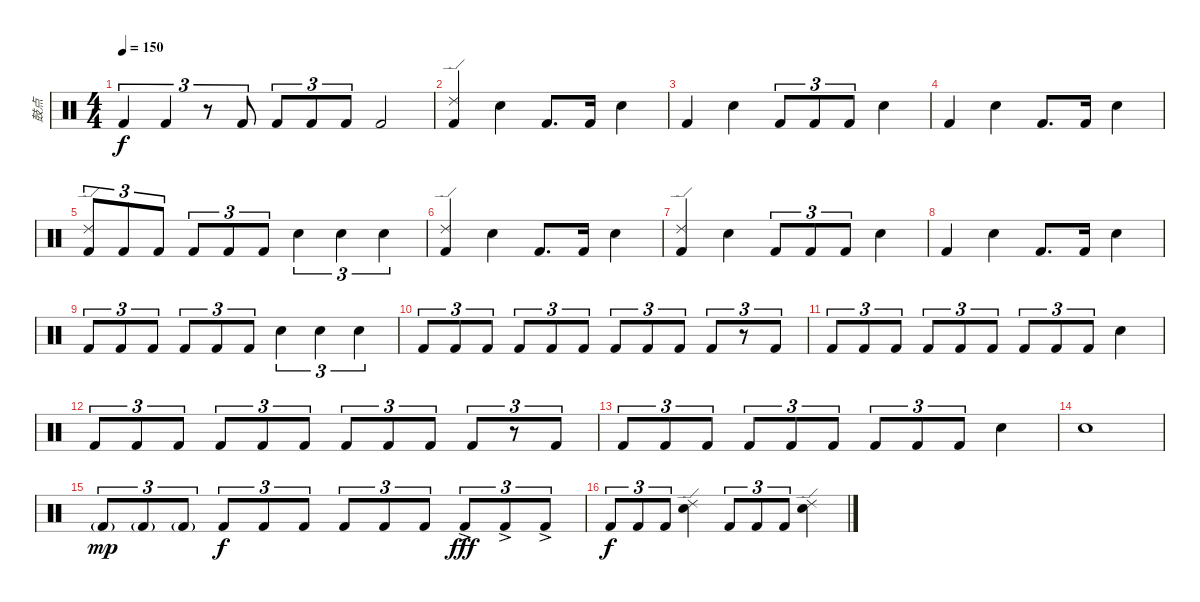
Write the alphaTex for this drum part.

\track ("鼓点" "鼓点") {instrument percussion}
\staff {score}
\articulation defaults
\ts (4 4)
\tempo 150
\clef neutral
\ks c "Kick (hit) 2".4{tu (3 2) dy f} "Kick (hit) 2".4{tu (3 2)}
r.8{tu (3 2)} "Kick (hit) 2".8{tu (3 2)} "Kick (hit) 2".8{tu (3 2)} "Kick (hit) 2".8{tu (3 2)} "Kick (hit) 2".8{tu (3 2)} "Kick (hit) 2".2 |
("Kick (hit) 2" "Ride (edge) 2").4 "Snare (hit) 2".4 "Kick (hit) 2".8{d} "Kick (hit) 2".16 "Snare (hit) 2".4 |
"Kick (hit) 2".4 "Snare (hit) 2".4 "Kick (hit) 2".8{tu (3 2)} "Kick (hit) 2".8{tu (3 2)} "Kick (hit) 2".8{tu (3 2)} "Snare (hit) 2".4 |
"Kick (hit) 2".4 "Snare (hit) 2".4 "Kick (hit) 2".8{d} "Kick (hit) 2".16 "Snare (hit) 2".4 |
("Kick (hit) 2" "Ride (edge) 2").8{tu (3 2)} "Kick (hit) 2".8{tu (3 2)} "Kick (hit) 2".8{tu (3 2)} "Kick (hit) 2".8{tu (3 2)} "Kick (hit) 2".8{tu (3 2)} "Kick (hit) 2".8{tu (3 2)} "Snare (hit) 2".4{tu (3 2)} "Snare (hit) 2".4{tu (3 2)} "Snare (hit) 2".4{tu (3 2)} |
("Kick (hit) 2" "Ride (edge) 2").4 "Snare (hit) 2".4 "Kick (hit) 2".8{d} "Kick (hit) 2".16 "Snare (hit) 2".4 |
("Kick (hit) 2" "Ride (edge) 2").4 "Snare (hit) 2".4 "Kick (hit) 2".8{tu (3 2)} "Kick (hit) 2".8{tu (3 2)} "Kick (hit) 2".8{tu (3 2)} "Snare (hit) 2".4 |
"Kick (hit) 2".4 "Snare (hit) 2".4 "Kick (hit) 2".8{d} "Kick (hit) 2".16 "Snare (hit) 2".4 |
"Kick (hit) 2".8{tu (3 2)} "Kick (hit) 2".8{tu (3 2)} "Kick (hit) 2".8{tu (3 2)} "Kick (hit) 2".8{tu (3 2)} "Kick (hit) 2".8{tu (3 2)} "Kick (hit) 2".8{tu (3 2)} "Snare (hit) 2".4{tu (3 2)} "Snare (hit) 2".4{tu (3 2)} "Snare (hit) 2".4{tu (3 2)} |
"Kick (hit) 2".8{tu (3 2)} "Kick (hit) 2".8{tu (3 2)} "Kick (hit) 2".8{tu (3 2)} "Kick (hit) 2".8{tu (3 2)} "Kick (hit) 2".8{tu (3 2)} "Kick (hit) 2".8{tu (3 2)} "Kick (hit) 2".8{tu (3 2)} "Kick (hit) 2".8{tu (3 2)} "Kick (hit) 2".8{tu (3 2)} "Kick (hit) 2".8{tu (3 2)} r.8{tu (3 2)} "Kick (hit) 2".8{tu (3 2)} |
"Kick (hit) 2".8{tu (3 2)} "Kick (hit) 2".8{tu (3 2)} "Kick (hit) 2".8{tu (3 2)} "Kick (hit) 2".8{tu (3 2)} "Kick (hit) 2".8{tu (3 2)} "Kick (hit) 2".8{tu (3 2)} "Kick (hit) 2".8{tu (3 2)} "Kick (hit) 2".8{tu (3 2)} "Kick (hit) 2".8{tu (3 2)} "Snare (hit) 2".4 |
"Kick (hit) 2".8{tu (3 2)} "Kick (hit) 2".8{tu (3 2)} "Kick (hit) 2".8{tu (3 2)} "Kick (hit) 2".8{tu (3 2)} "Kick (hit) 2".8{tu (3 2)} "Kick (hit) 2".8{tu (3 2)} "Kick (hit) 2".8{tu (3 2)} "Kick (hit) 2".8{tu (3 2)} "Kick (hit) 2".8{tu (3 2)} "Kick (hit) 2".8{tu (3 2)} r.8{tu (3 2)} "Kick (hit) 2".8{tu (3 2)} |
"Kick (hit) 2".8{tu (3 2)} "Kick (hit) 2".8{tu (3 2)} "Kick (hit) 2".8{tu (3 2)} "Kick (hit) 2".8{tu (3 2)} "Kick (hit) 2".8{tu (3 2)} "Kick (hit) 2".8{tu (3 2)} "Kick (hit) 2".8{tu (3 2)} "Kick (hit) 2".8{tu (3 2)} "Kick (hit) 2".8{tu (3 2)} "Snare (hit) 2".4 |
"Snare (hit) 2".1 |
"Kick (hit) 2"{g}.8{tu (3 2) dy mp} "Kick (hit) 2"{g}.8{tu (3 2)} "Kick (hit) 2"{g}.8{tu (3 2)} "Kick (hit) 2".8{tu (3 2) dy f} "Kick (hit) 2".8{tu (3 2)} "Kick (hit) 2".8{tu (3 2)} "Kick (hit) 2".8{tu (3 2)} "Kick (hit) 2".8{tu (3 2)} "Kick (hit) 2".8{tu (3 2)} "Kick (hit) 2"{ac}.8{tu (3 2) dy fff} "Kick (hit) 2"{ac}.8{tu (3 2)} "Kick (hit) 2"{ac}.8{tu (3 2)} |
"Kick (hit) 2".8{tu (3 2) dy f} "Kick (hit) 2".8{tu (3 2)} "Kick (hit) 2".8{tu (3 2)} ("Ride (edge) 2" "Snare (hit) 2").4 "Kick (hit) 2".8{tu (3 2)} "Kick (hit) 2".8{tu (3 2)} "Kick (hit) 2".8{tu (3 2)} ("Ride (edge) 2" "Snare (hit) 2").4
